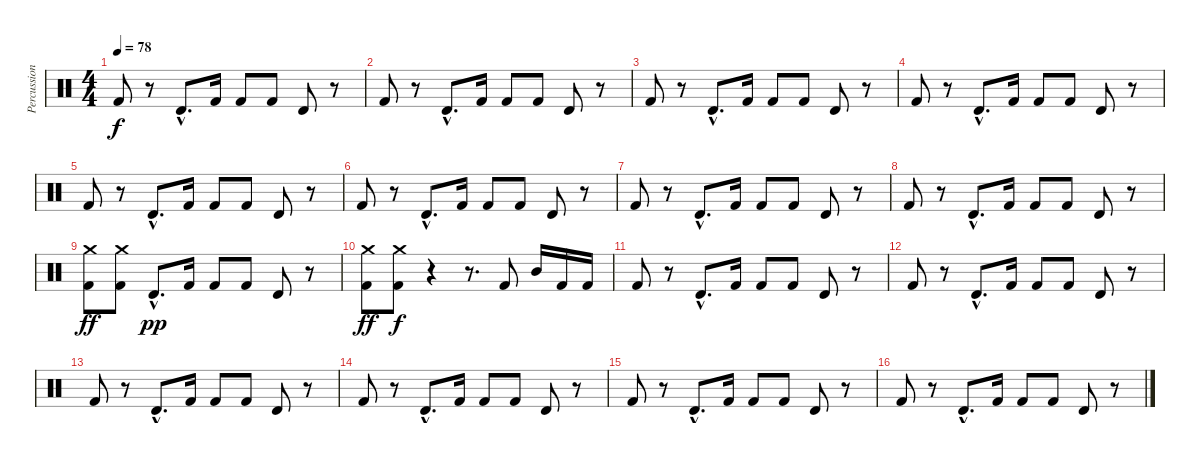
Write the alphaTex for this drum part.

\track ("Percussion" "Percussion") {instrument percussion}
\staff {score}
\articulation defaults
\ts (4 4)
\tempo 78
\clef neutral
\ks c "Kick (hit) 2".8{dy f}
r.8 "Timbale high (hit)"{hac}.8{d} "Kick (hit) 2".16 "Kick (hit) 2".8 "Kick (hit) 2".8 "Timbale high (hit)".8 r.8 |
"Kick (hit) 2".8 r.8 "Timbale high (hit)"{hac}.8{d} "Kick (hit) 2".16 "Kick (hit) 2".8 "Kick (hit) 2".8 "Timbale high (hit)".8 r.8 |
"Kick (hit) 2".8 r.8 "Timbale high (hit)"{hac}.8{d} "Kick (hit) 2".16 "Kick (hit) 2".8 "Kick (hit) 2".8 "Timbale high (hit)".8 r.8 |
"Kick (hit) 2".8 r.8 "Timbale high (hit)"{hac}.8{d} "Kick (hit) 2".16 "Kick (hit) 2".8 "Kick (hit) 2".8 "Timbale high (hit)".8 r.8 |
"Kick (hit) 2".8 r.8 "Timbale high (hit)"{hac}.8{d} "Kick (hit) 2".16 "Kick (hit) 2".8 "Kick (hit) 2".8 "Timbale high (hit)".8 r.8 |
"Kick (hit) 2".8 r.8 "Timbale high (hit)"{hac}.8{d} "Kick (hit) 2".16 "Kick (hit) 2".8 "Kick (hit) 2".8 "Timbale high (hit)".8 r.8 |
"Kick (hit) 2".8 r.8 "Timbale high (hit)"{hac}.8{d} "Kick (hit) 2".16 "Kick (hit) 2".8 "Kick (hit) 2".8 "Timbale high (hit)".8 r.8 |
"Kick (hit) 2".8 r.8 "Timbale high (hit)"{hac}.8{d} "Kick (hit) 2".16 "Kick (hit) 2".8 "Kick (hit) 2".8 "Timbale high (hit)".8 r.8 |
("Crash medium (hit)" "Kick (hit) 2").8{dy ff} ("Crash medium (hit)" "Kick (hit) 2").8 "Timbale high (hit)"{hac}.8{d dy pp} "Kick (hit) 2".16 "Kick (hit) 2".8 "Kick (hit) 2".8 "Timbale high (hit)".8 r.8 |
("Crash medium (hit)" "Kick (hit) 2").8{dy ff} ("Crash medium (hit)" "Kick (hit) 2").8{dy f} r.4 r.8{d} "Kick (hit) 2".8 "Mid Tom (hit)".16 "Kick (hit) 2".16 "Kick (hit) 2".16 |
"Kick (hit) 2".8 r.8 "Timbale high (hit)"{hac}.8{d} "Kick (hit) 2".16 "Kick (hit) 2".8 "Kick (hit) 2".8 "Timbale high (hit)".8 r.8 |
"Kick (hit) 2".8 r.8 "Timbale high (hit)"{hac}.8{d} "Kick (hit) 2".16 "Kick (hit) 2".8 "Kick (hit) 2".8 "Timbale high (hit)".8 r.8 |
"Kick (hit) 2".8 r.8 "Timbale high (hit)"{hac}.8{d} "Kick (hit) 2".16 "Kick (hit) 2".8 "Kick (hit) 2".8 "Timbale high (hit)".8 r.8 |
"Kick (hit) 2".8 r.8 "Timbale high (hit)"{hac}.8{d} "Kick (hit) 2".16 "Kick (hit) 2".8 "Kick (hit) 2".8 "Timbale high (hit)".8 r.8 |
"Kick (hit) 2".8 r.8 "Timbale high (hit)"{hac}.8{d} "Kick (hit) 2".16 "Kick (hit) 2".8 "Kick (hit) 2".8 "Timbale high (hit)".8 r.8 |
"Kick (hit) 2".8 r.8 "Timbale high (hit)"{hac}.8{d} "Kick (hit) 2".16 "Kick (hit) 2".8 "Kick (hit) 2".8 "Timbale high (hit)".8 r.8
